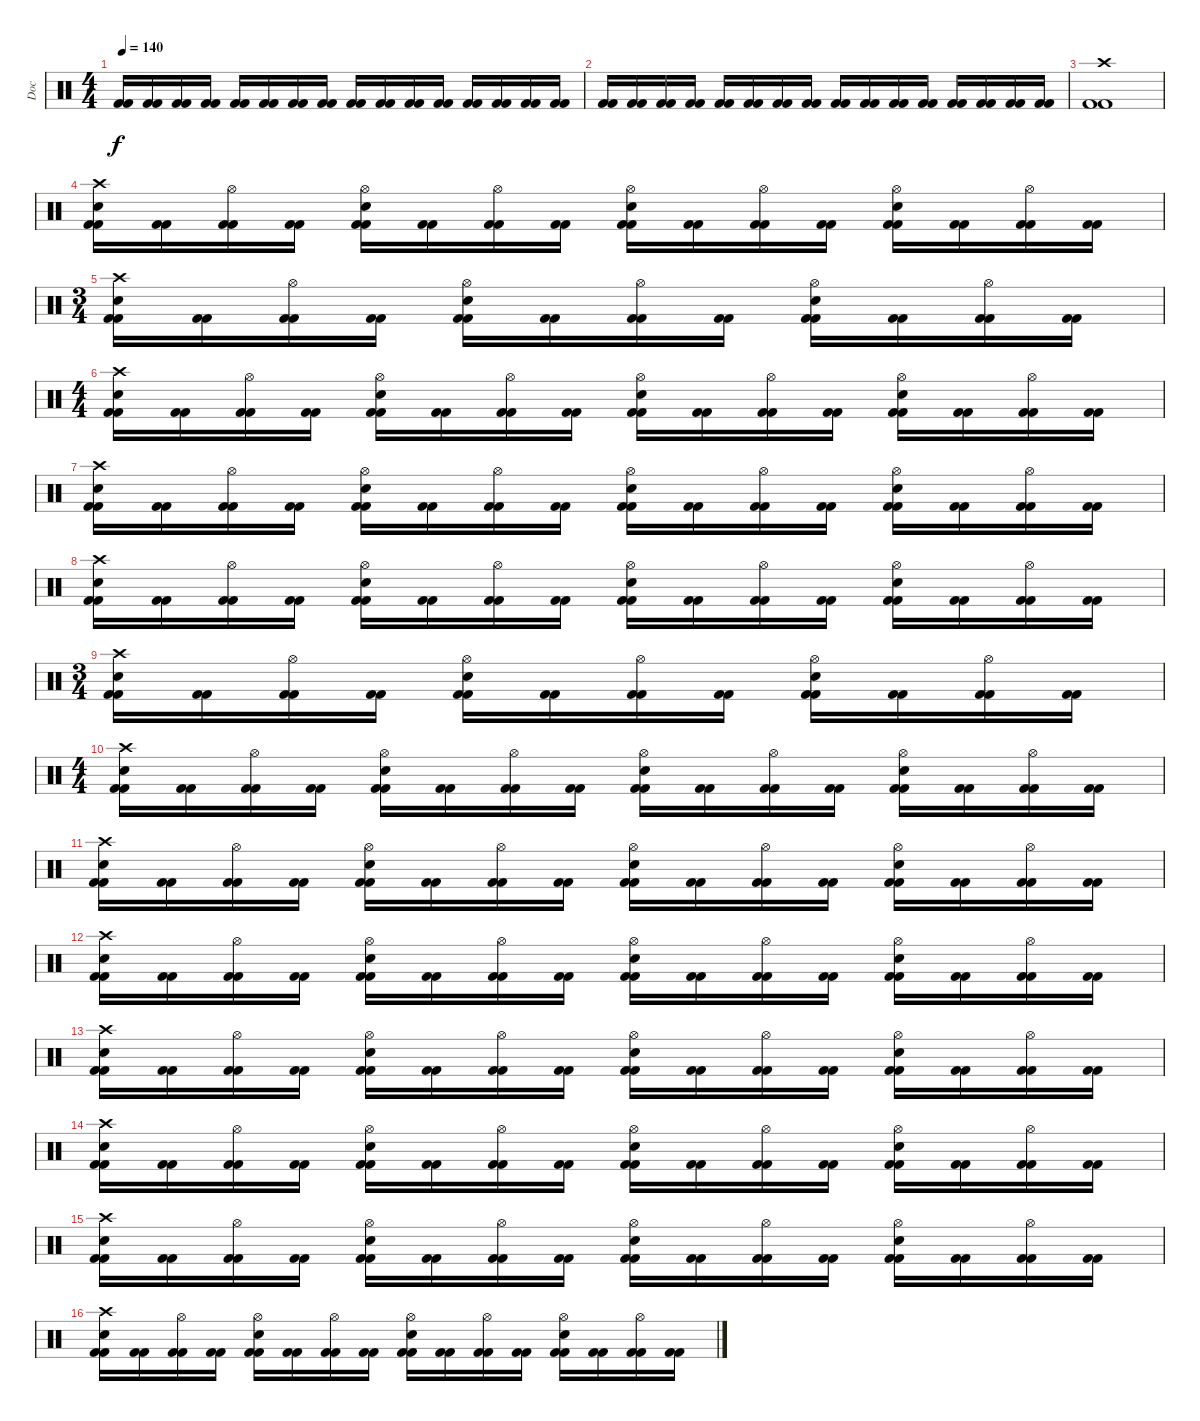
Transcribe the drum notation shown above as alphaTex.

\track ("Doc" "Doc") {instrument percussion}
\staff {score}
\articulation defaults
\ts (4 4)
\tempo 140
\clef neutral
\ks c
("Kick (hit) 2" "Kick (hit) 2").16{dy f} ("Kick (hit) 2" "Kick (hit) 2").16 ("Kick (hit) 2" "Kick (hit) 2").16 ("Kick (hit) 2" "Kick (hit) 2").16 ("Kick (hit) 2" "Kick (hit) 2").16 ("Kick (hit) 2" "Kick (hit) 2").16 ("Kick (hit) 2" "Kick (hit) 2").16 ("Kick (hit) 2" "Kick (hit) 2").16 ("Kick (hit) 2" "Kick (hit) 2").16 ("Kick (hit) 2" "Kick (hit) 2").16 ("Kick (hit) 2" "Kick (hit) 2").16 ("Kick (hit) 2" "Kick (hit) 2").16 ("Kick (hit) 2" "Kick (hit) 2").16 ("Kick (hit) 2" "Kick (hit) 2").16 ("Kick (hit) 2" "Kick (hit) 2").16 ("Kick (hit) 2" "Kick (hit) 2").16 |
("Kick (hit) 2" "Kick (hit) 2").16 ("Kick (hit) 2" "Kick (hit) 2").16 ("Kick (hit) 2" "Kick (hit) 2").16 ("Kick (hit) 2" "Kick (hit) 2").16 ("Kick (hit) 2" "Kick (hit) 2").16 ("Kick (hit) 2" "Kick (hit) 2").16 ("Kick (hit) 2" "Kick (hit) 2").16 ("Kick (hit) 2" "Kick (hit) 2").16 ("Kick (hit) 2" "Kick (hit) 2").16 ("Kick (hit) 2" "Kick (hit) 2").16 ("Kick (hit) 2" "Kick (hit) 2").16 ("Kick (hit) 2" "Kick (hit) 2").16 ("Kick (hit) 2" "Kick (hit) 2").16 ("Kick (hit) 2" "Kick (hit) 2").16 ("Kick (hit) 2" "Kick (hit) 2").16 ("Kick (hit) 2" "Kick (hit) 2").16 |
("Crash high (hit)" "Kick (hit) 2" "Kick (hit) 2").1 |
("Kick (hit) 2" "Crash high (hit)" "Electric Snare (hit)" "Kick (hit) 2").16 ("Kick (hit) 2" "Kick (hit) 2").16 ("Kick (hit) 2" "Hi-Hat (open)" "Kick (hit) 2").16 ("Kick (hit) 2" "Kick (hit) 2").16 ("Kick (hit) 2" "Hi-Hat (open)" "Electric Snare (hit)" "Kick (hit) 2").16 ("Kick (hit) 2" "Kick (hit) 2").16 ("Kick (hit) 2" "Hi-Hat (open)" "Kick (hit) 2").16 ("Kick (hit) 2" "Kick (hit) 2").16 ("Kick (hit) 2" "Hi-Hat (open)" "Electric Snare (hit)" "Kick (hit) 2").16 ("Kick (hit) 2" "Kick (hit) 2").16 ("Kick (hit) 2" "Hi-Hat (open)" "Kick (hit) 2").16 ("Kick (hit) 2" "Kick (hit) 2").16 ("Kick (hit) 2" "Hi-Hat (open)" "Electric Snare (hit)" "Kick (hit) 2").16 ("Kick (hit) 2" "Kick (hit) 2").16 ("Kick (hit) 2" "Hi-Hat (open)" "Kick (hit) 2").16 ("Kick (hit) 2" "Kick (hit) 2").16 |
\ts (3 4)
("Kick (hit) 2" "Crash high (hit)" "Electric Snare (hit)" "Kick (hit) 2").16 ("Kick (hit) 2" "Kick (hit) 2").16 ("Kick (hit) 2" "Hi-Hat (open)" "Kick (hit) 2").16 ("Kick (hit) 2" "Kick (hit) 2").16 ("Kick (hit) 2" "Hi-Hat (open)" "Electric Snare (hit)" "Kick (hit) 2").16 ("Kick (hit) 2" "Kick (hit) 2").16 ("Kick (hit) 2" "Hi-Hat (open)" "Kick (hit) 2").16 ("Kick (hit) 2" "Kick (hit) 2").16 ("Kick (hit) 2" "Hi-Hat (open)" "Electric Snare (hit)" "Kick (hit) 2").16 ("Kick (hit) 2" "Kick (hit) 2").16 ("Kick (hit) 2" "Hi-Hat (open)" "Kick (hit) 2").16 ("Kick (hit) 2" "Kick (hit) 2").16 |
\ts (4 4)
("Kick (hit) 2" "Crash high (hit)" "Electric Snare (hit)" "Kick (hit) 2").16 ("Kick (hit) 2" "Kick (hit) 2").16 ("Kick (hit) 2" "Hi-Hat (open)" "Kick (hit) 2").16 ("Kick (hit) 2" "Kick (hit) 2").16 ("Kick (hit) 2" "Hi-Hat (open)" "Electric Snare (hit)" "Kick (hit) 2").16 ("Kick (hit) 2" "Kick (hit) 2").16 ("Kick (hit) 2" "Hi-Hat (open)" "Kick (hit) 2").16 ("Kick (hit) 2" "Kick (hit) 2").16 ("Kick (hit) 2" "Hi-Hat (open)" "Electric Snare (hit)" "Kick (hit) 2").16 ("Kick (hit) 2" "Kick (hit) 2").16 ("Kick (hit) 2" "Hi-Hat (open)" "Kick (hit) 2").16 ("Kick (hit) 2" "Kick (hit) 2").16 ("Kick (hit) 2" "Hi-Hat (open)" "Electric Snare (hit)" "Kick (hit) 2").16 ("Kick (hit) 2" "Kick (hit) 2").16 ("Kick (hit) 2" "Hi-Hat (open)" "Kick (hit) 2").16 ("Kick (hit) 2" "Kick (hit) 2").16 |
("Kick (hit) 2" "Crash high (hit)" "Electric Snare (hit)" "Kick (hit) 2").16 ("Kick (hit) 2" "Kick (hit) 2").16 ("Kick (hit) 2" "Hi-Hat (open)" "Kick (hit) 2").16 ("Kick (hit) 2" "Kick (hit) 2").16 ("Kick (hit) 2" "Hi-Hat (open)" "Electric Snare (hit)" "Kick (hit) 2").16 ("Kick (hit) 2" "Kick (hit) 2").16 ("Kick (hit) 2" "Hi-Hat (open)" "Kick (hit) 2").16 ("Kick (hit) 2" "Kick (hit) 2").16 ("Kick (hit) 2" "Hi-Hat (open)" "Electric Snare (hit)" "Kick (hit) 2").16 ("Kick (hit) 2" "Kick (hit) 2").16 ("Kick (hit) 2" "Hi-Hat (open)" "Kick (hit) 2").16 ("Kick (hit) 2" "Kick (hit) 2").16 ("Kick (hit) 2" "Hi-Hat (open)" "Electric Snare (hit)" "Kick (hit) 2").16 ("Kick (hit) 2" "Kick (hit) 2").16 ("Kick (hit) 2" "Hi-Hat (open)" "Kick (hit) 2").16 ("Kick (hit) 2" "Kick (hit) 2").16 |
("Kick (hit) 2" "Crash high (hit)" "Electric Snare (hit)" "Kick (hit) 2").16 ("Kick (hit) 2" "Kick (hit) 2").16 ("Kick (hit) 2" "Hi-Hat (open)" "Kick (hit) 2").16 ("Kick (hit) 2" "Kick (hit) 2").16 ("Kick (hit) 2" "Hi-Hat (open)" "Electric Snare (hit)" "Kick (hit) 2").16 ("Kick (hit) 2" "Kick (hit) 2").16 ("Kick (hit) 2" "Hi-Hat (open)" "Kick (hit) 2").16 ("Kick (hit) 2" "Kick (hit) 2").16 ("Kick (hit) 2" "Hi-Hat (open)" "Electric Snare (hit)" "Kick (hit) 2").16 ("Kick (hit) 2" "Kick (hit) 2").16 ("Kick (hit) 2" "Hi-Hat (open)" "Kick (hit) 2").16 ("Kick (hit) 2" "Kick (hit) 2").16 ("Kick (hit) 2" "Hi-Hat (open)" "Electric Snare (hit)" "Kick (hit) 2").16 ("Kick (hit) 2" "Kick (hit) 2").16 ("Kick (hit) 2" "Hi-Hat (open)" "Kick (hit) 2").16 ("Kick (hit) 2" "Kick (hit) 2").16 |
\ts (3 4)
("Kick (hit) 2" "Crash high (hit)" "Electric Snare (hit)" "Kick (hit) 2").16 ("Kick (hit) 2" "Kick (hit) 2").16 ("Kick (hit) 2" "Hi-Hat (open)" "Kick (hit) 2").16 ("Kick (hit) 2" "Kick (hit) 2").16 ("Kick (hit) 2" "Hi-Hat (open)" "Electric Snare (hit)" "Kick (hit) 2").16 ("Kick (hit) 2" "Kick (hit) 2").16 ("Kick (hit) 2" "Hi-Hat (open)" "Kick (hit) 2").16 ("Kick (hit) 2" "Kick (hit) 2").16 ("Kick (hit) 2" "Hi-Hat (open)" "Electric Snare (hit)" "Kick (hit) 2").16 ("Kick (hit) 2" "Kick (hit) 2").16 ("Kick (hit) 2" "Hi-Hat (open)" "Kick (hit) 2").16 ("Kick (hit) 2" "Kick (hit) 2").16 |
\ts (4 4)
("Kick (hit) 2" "Crash high (hit)" "Electric Snare (hit)" "Kick (hit) 2").16 ("Kick (hit) 2" "Kick (hit) 2").16 ("Kick (hit) 2" "Hi-Hat (open)" "Kick (hit) 2").16 ("Kick (hit) 2" "Kick (hit) 2").16 ("Kick (hit) 2" "Hi-Hat (open)" "Electric Snare (hit)" "Kick (hit) 2").16 ("Kick (hit) 2" "Kick (hit) 2").16 ("Kick (hit) 2" "Hi-Hat (open)" "Kick (hit) 2").16 ("Kick (hit) 2" "Kick (hit) 2").16 ("Kick (hit) 2" "Hi-Hat (open)" "Electric Snare (hit)" "Kick (hit) 2").16 ("Kick (hit) 2" "Kick (hit) 2").16 ("Kick (hit) 2" "Hi-Hat (open)" "Kick (hit) 2").16 ("Kick (hit) 2" "Kick (hit) 2").16 ("Kick (hit) 2" "Hi-Hat (open)" "Electric Snare (hit)" "Kick (hit) 2").16 ("Kick (hit) 2" "Kick (hit) 2").16 ("Kick (hit) 2" "Hi-Hat (open)" "Kick (hit) 2").16 ("Kick (hit) 2" "Kick (hit) 2").16 |
("Kick (hit) 2" "Crash high (hit)" "Electric Snare (hit)" "Kick (hit) 2").16 ("Kick (hit) 2" "Kick (hit) 2").16 ("Kick (hit) 2" "Hi-Hat (open)" "Kick (hit) 2").16 ("Kick (hit) 2" "Kick (hit) 2").16 ("Kick (hit) 2" "Hi-Hat (open)" "Electric Snare (hit)" "Kick (hit) 2").16 ("Kick (hit) 2" "Kick (hit) 2").16 ("Kick (hit) 2" "Hi-Hat (open)" "Kick (hit) 2").16 ("Kick (hit) 2" "Kick (hit) 2").16 ("Kick (hit) 2" "Hi-Hat (open)" "Electric Snare (hit)" "Kick (hit) 2").16 ("Kick (hit) 2" "Kick (hit) 2").16 ("Kick (hit) 2" "Hi-Hat (open)" "Kick (hit) 2").16 ("Kick (hit) 2" "Kick (hit) 2").16 ("Kick (hit) 2" "Hi-Hat (open)" "Electric Snare (hit)" "Kick (hit) 2").16 ("Kick (hit) 2" "Kick (hit) 2").16 ("Kick (hit) 2" "Hi-Hat (open)" "Kick (hit) 2").16 ("Kick (hit) 2" "Kick (hit) 2").16 |
("Kick (hit) 2" "Crash high (hit)" "Electric Snare (hit)" "Kick (hit) 2").16 ("Kick (hit) 2" "Kick (hit) 2").16 ("Kick (hit) 2" "Hi-Hat (open)" "Kick (hit) 2").16 ("Kick (hit) 2" "Kick (hit) 2").16 ("Kick (hit) 2" "Hi-Hat (open)" "Electric Snare (hit)" "Kick (hit) 2").16 ("Kick (hit) 2" "Kick (hit) 2").16 ("Kick (hit) 2" "Hi-Hat (open)" "Kick (hit) 2").16 ("Kick (hit) 2" "Kick (hit) 2").16 ("Kick (hit) 2" "Hi-Hat (open)" "Electric Snare (hit)" "Kick (hit) 2").16 ("Kick (hit) 2" "Kick (hit) 2").16 ("Kick (hit) 2" "Hi-Hat (open)" "Kick (hit) 2").16 ("Kick (hit) 2" "Kick (hit) 2").16 ("Kick (hit) 2" "Hi-Hat (open)" "Electric Snare (hit)" "Kick (hit) 2").16 ("Kick (hit) 2" "Kick (hit) 2").16 ("Kick (hit) 2" "Hi-Hat (open)" "Kick (hit) 2").16 ("Kick (hit) 2" "Kick (hit) 2").16 |
("Kick (hit) 2" "Crash high (hit)" "Electric Snare (hit)" "Kick (hit) 2").16 ("Kick (hit) 2" "Kick (hit) 2").16 ("Kick (hit) 2" "Hi-Hat (open)" "Kick (hit) 2").16 ("Kick (hit) 2" "Kick (hit) 2").16 ("Kick (hit) 2" "Hi-Hat (open)" "Electric Snare (hit)" "Kick (hit) 2").16 ("Kick (hit) 2" "Kick (hit) 2").16 ("Kick (hit) 2" "Hi-Hat (open)" "Kick (hit) 2").16 ("Kick (hit) 2" "Kick (hit) 2").16 ("Kick (hit) 2" "Hi-Hat (open)" "Electric Snare (hit)" "Kick (hit) 2").16 ("Kick (hit) 2" "Kick (hit) 2").16 ("Kick (hit) 2" "Hi-Hat (open)" "Kick (hit) 2").16 ("Kick (hit) 2" "Kick (hit) 2").16 ("Kick (hit) 2" "Hi-Hat (open)" "Electric Snare (hit)" "Kick (hit) 2").16 ("Kick (hit) 2" "Kick (hit) 2").16 ("Kick (hit) 2" "Hi-Hat (open)" "Kick (hit) 2").16 ("Kick (hit) 2" "Kick (hit) 2").16 |
("Kick (hit) 2" "Crash high (hit)" "Electric Snare (hit)" "Kick (hit) 2").16 ("Kick (hit) 2" "Kick (hit) 2").16 ("Kick (hit) 2" "Hi-Hat (open)" "Kick (hit) 2").16 ("Kick (hit) 2" "Kick (hit) 2").16 ("Kick (hit) 2" "Hi-Hat (open)" "Electric Snare (hit)" "Kick (hit) 2").16 ("Kick (hit) 2" "Kick (hit) 2").16 ("Kick (hit) 2" "Hi-Hat (open)" "Kick (hit) 2").16 ("Kick (hit) 2" "Kick (hit) 2").16 ("Kick (hit) 2" "Hi-Hat (open)" "Electric Snare (hit)" "Kick (hit) 2").16 ("Kick (hit) 2" "Kick (hit) 2").16 ("Kick (hit) 2" "Hi-Hat (open)" "Kick (hit) 2").16 ("Kick (hit) 2" "Kick (hit) 2").16 ("Kick (hit) 2" "Hi-Hat (open)" "Electric Snare (hit)" "Kick (hit) 2").16 ("Kick (hit) 2" "Kick (hit) 2").16 ("Kick (hit) 2" "Hi-Hat (open)" "Kick (hit) 2").16 ("Kick (hit) 2" "Kick (hit) 2").16 |
("Kick (hit) 2" "Crash high (hit)" "Electric Snare (hit)" "Kick (hit) 2").16 ("Kick (hit) 2" "Kick (hit) 2").16 ("Kick (hit) 2" "Hi-Hat (open)" "Kick (hit) 2").16 ("Kick (hit) 2" "Kick (hit) 2").16 ("Kick (hit) 2" "Hi-Hat (open)" "Electric Snare (hit)" "Kick (hit) 2").16 ("Kick (hit) 2" "Kick (hit) 2").16 ("Kick (hit) 2" "Hi-Hat (open)" "Kick (hit) 2").16 ("Kick (hit) 2" "Kick (hit) 2").16 ("Kick (hit) 2" "Hi-Hat (open)" "Electric Snare (hit)" "Kick (hit) 2").16 ("Kick (hit) 2" "Kick (hit) 2").16 ("Kick (hit) 2" "Hi-Hat (open)" "Kick (hit) 2").16 ("Kick (hit) 2" "Kick (hit) 2").16 ("Kick (hit) 2" "Hi-Hat (open)" "Electric Snare (hit)" "Kick (hit) 2").16 ("Kick (hit) 2" "Kick (hit) 2").16 ("Kick (hit) 2" "Hi-Hat (open)" "Kick (hit) 2").16 ("Kick (hit) 2" "Kick (hit) 2").16 |
("Kick (hit) 2" "Crash high (hit)" "Electric Snare (hit)" "Kick (hit) 2").16 ("Kick (hit) 2" "Kick (hit) 2").16 ("Kick (hit) 2" "Hi-Hat (open)" "Kick (hit) 2").16 ("Kick (hit) 2" "Kick (hit) 2").16 ("Kick (hit) 2" "Hi-Hat (open)" "Electric Snare (hit)" "Kick (hit) 2").16 ("Kick (hit) 2" "Kick (hit) 2").16 ("Kick (hit) 2" "Hi-Hat (open)" "Kick (hit) 2").16 ("Kick (hit) 2" "Kick (hit) 2").16 ("Kick (hit) 2" "Hi-Hat (open)" "Electric Snare (hit)" "Kick (hit) 2").16 ("Kick (hit) 2" "Kick (hit) 2").16 ("Kick (hit) 2" "Hi-Hat (open)" "Kick (hit) 2").16 ("Kick (hit) 2" "Kick (hit) 2").16 ("Kick (hit) 2" "Hi-Hat (open)" "Electric Snare (hit)" "Kick (hit) 2").16 ("Kick (hit) 2" "Kick (hit) 2").16 ("Kick (hit) 2" "Hi-Hat (open)" "Kick (hit) 2").16 ("Kick (hit) 2" "Kick (hit) 2").16
